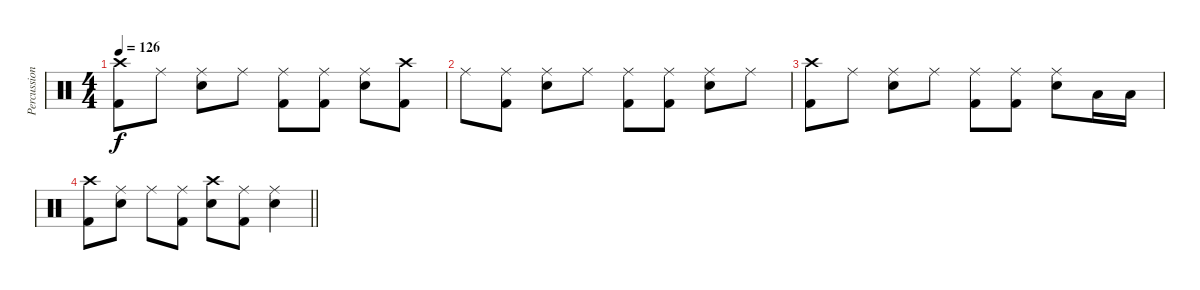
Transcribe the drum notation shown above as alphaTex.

\track ("Percussion" "Percussion") {instrument percussion}
\staff {score}
\articulation defaults
\ts (4 4)
\tempo 126
\clef neutral
\ks c
("Crash high (hit)" "Kick (hit) 2").8{dy f} "Ride (middle)".8 ("Ride (middle)" "Snare (hit) 2").8 "Ride (middle)".8 ("Ride (middle)" "Kick (hit) 2").8 ("Ride (middle)" "Kick (hit) 2").8 ("Ride (middle)" "Snare (hit) 2").8 ("Crash high (hit)" "Kick (hit) 2").8 |
"Ride (middle)".8 ("Ride (middle)" "Kick (hit) 2").8 ("Ride (middle)" "Snare (hit) 2").8 "Ride (middle)".8 ("Ride (middle)" "Kick (hit) 2").8 ("Ride (middle)" "Kick (hit) 2").8 ("Ride (middle)" "Snare (hit) 2").8 "Ride (middle)".8 |
("Crash high (hit)" "Kick (hit) 2").8 "Ride (middle)".8 ("Ride (middle)" "Snare (hit) 2").8 "Ride (middle)".8 ("Ride (middle)" "Kick (hit) 2").8 ("Ride (middle)" "Kick (hit) 2").8 ("Ride (middle)" "Snare (hit) 2").8 "Low Floor Tom (hit)".16 "Low Floor Tom (hit)".16 |
\barLineRight lightlight
("Crash high (hit)" "Kick (hit) 2").8 ("Ride (middle)" "Snare (hit) 2").8 "Ride (middle)".8 ("Ride (middle)" "Kick (hit) 2").8 ("Crash high (hit)" "Snare (hit) 2").8 ("Ride (middle)" "Kick (hit) 2").8 ("Ride (middle)" "Snare (hit) 2").4
